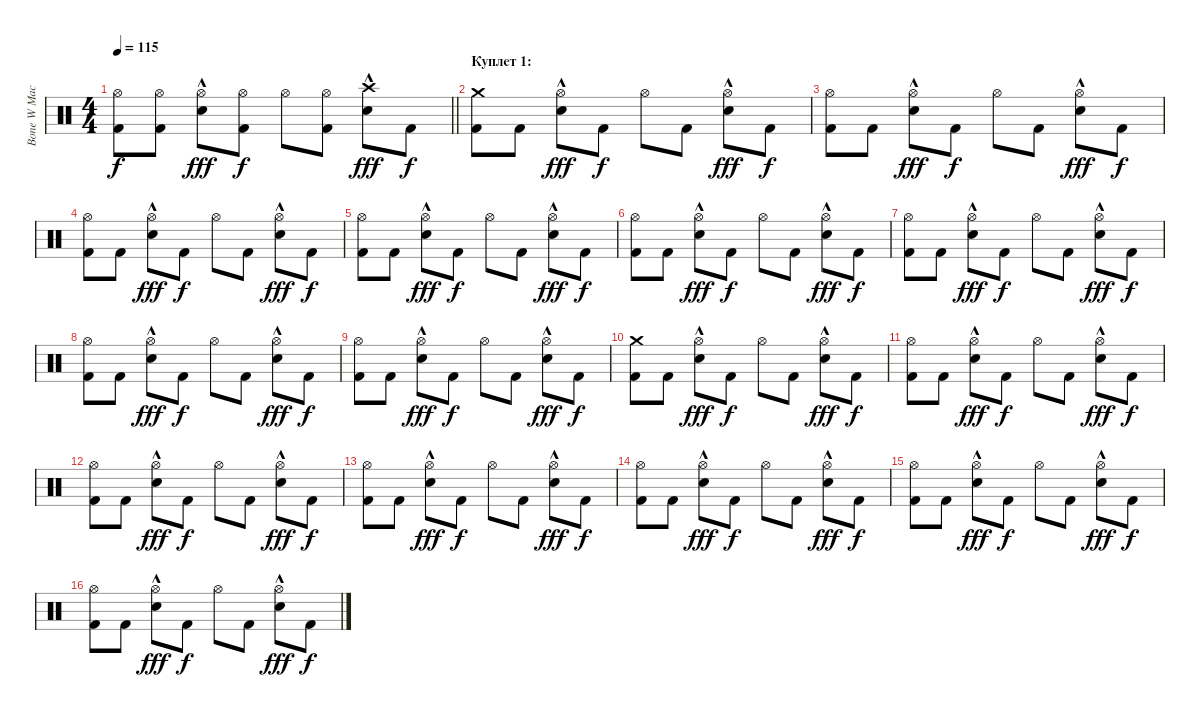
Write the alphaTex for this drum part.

\track ("Bone W Machine" "Bone W Mac") {instrument percussion}
\staff {score}
\articulation defaults
\ts (4 4)
\tempo 115
\clef neutral
\barLineRight lightlight
\ks c
("Hi-Hat (open)" "Kick (hit) 2").8{dy f} ("Hi-Hat (open)" "Kick (hit) 2").8 ("Hi-Hat (open)" "Electric Snare (hit)"{hac}).8{dy fff} ("Hi-Hat (open)" "Kick (hit) 2").8{dy f} "Hi-Hat (open)".8 ("Hi-Hat (open)" "Kick (hit) 2").8 ("Crash high (hit)" "Electric Snare (hit)"{hac}).8{dy fff} "Kick (hit) 2".8{dy f} |
\section ("" "Куплет 1:")
("Crash medium (hit)" "Kick (hit) 2").8 "Kick (hit) 2".8 ("Hi-Hat (open)" "Electric Snare (hit)"{hac}).8{dy fff} "Kick (hit) 2".8{dy f} "Hi-Hat (open)".8 "Kick (hit) 2".8 ("Hi-Hat (open)" "Electric Snare (hit)"{hac}).8{dy fff} "Kick (hit) 2".8{dy f} |
("Hi-Hat (open)" "Kick (hit) 2").8 "Kick (hit) 2".8 ("Hi-Hat (open)" "Electric Snare (hit)"{hac}).8{dy fff} "Kick (hit) 2".8{dy f} "Hi-Hat (open)".8 "Kick (hit) 2".8 ("Hi-Hat (open)" "Electric Snare (hit)"{hac}).8{dy fff} "Kick (hit) 2".8{dy f} |
("Hi-Hat (open)" "Kick (hit) 2").8 "Kick (hit) 2".8 ("Hi-Hat (open)" "Electric Snare (hit)"{hac}).8{dy fff} "Kick (hit) 2".8{dy f} "Hi-Hat (open)".8 "Kick (hit) 2".8 ("Hi-Hat (open)" "Electric Snare (hit)"{hac}).8{dy fff} "Kick (hit) 2".8{dy f} |
("Hi-Hat (open)" "Kick (hit) 2").8 "Kick (hit) 2".8 ("Hi-Hat (open)" "Electric Snare (hit)"{hac}).8{dy fff} "Kick (hit) 2".8{dy f} "Hi-Hat (open)".8 "Kick (hit) 2".8 ("Hi-Hat (open)" "Electric Snare (hit)"{hac}).8{dy fff} "Kick (hit) 2".8{dy f} |
("Hi-Hat (open)" "Kick (hit) 2").8 "Kick (hit) 2".8 ("Hi-Hat (open)" "Electric Snare (hit)"{hac}).8{dy fff} "Kick (hit) 2".8{dy f} "Hi-Hat (open)".8 "Kick (hit) 2".8 ("Hi-Hat (open)" "Electric Snare (hit)"{hac}).8{dy fff} "Kick (hit) 2".8{dy f} |
("Hi-Hat (open)" "Kick (hit) 2").8 "Kick (hit) 2".8 ("Hi-Hat (open)" "Electric Snare (hit)"{hac}).8{dy fff} "Kick (hit) 2".8{dy f} "Hi-Hat (open)".8 "Kick (hit) 2".8 ("Hi-Hat (open)" "Electric Snare (hit)"{hac}).8{dy fff} "Kick (hit) 2".8{dy f} |
("Hi-Hat (open)" "Kick (hit) 2").8 "Kick (hit) 2".8 ("Hi-Hat (open)" "Electric Snare (hit)"{hac}).8{dy fff} "Kick (hit) 2".8{dy f} "Hi-Hat (open)".8 "Kick (hit) 2".8 ("Hi-Hat (open)" "Electric Snare (hit)"{hac}).8{dy fff} "Kick (hit) 2".8{dy f} |
("Hi-Hat (open)" "Kick (hit) 2").8 "Kick (hit) 2".8 ("Hi-Hat (open)" "Electric Snare (hit)"{hac}).8{dy fff} "Kick (hit) 2".8{dy f} "Hi-Hat (open)".8 "Kick (hit) 2".8 ("Hi-Hat (open)" "Electric Snare (hit)"{hac}).8{dy fff} "Kick (hit) 2".8{dy f} |
("Crash medium (hit)" "Kick (hit) 2").8 "Kick (hit) 2".8 ("Hi-Hat (open)" "Electric Snare (hit)"{hac}).8{dy fff} "Kick (hit) 2".8{dy f} "Hi-Hat (open)".8 "Kick (hit) 2".8 ("Hi-Hat (open)" "Electric Snare (hit)"{hac}).8{dy fff} "Kick (hit) 2".8{dy f} |
("Hi-Hat (open)" "Kick (hit) 2").8 "Kick (hit) 2".8 ("Hi-Hat (open)" "Electric Snare (hit)"{hac}).8{dy fff} "Kick (hit) 2".8{dy f} "Hi-Hat (open)".8 "Kick (hit) 2".8 ("Hi-Hat (open)" "Electric Snare (hit)"{hac}).8{dy fff} "Kick (hit) 2".8{dy f} |
("Hi-Hat (open)" "Kick (hit) 2").8 "Kick (hit) 2".8 ("Hi-Hat (open)" "Electric Snare (hit)"{hac}).8{dy fff} "Kick (hit) 2".8{dy f} "Hi-Hat (open)".8 "Kick (hit) 2".8 ("Hi-Hat (open)" "Electric Snare (hit)"{hac}).8{dy fff} "Kick (hit) 2".8{dy f} |
("Hi-Hat (open)" "Kick (hit) 2").8 "Kick (hit) 2".8 ("Hi-Hat (open)" "Electric Snare (hit)"{hac}).8{dy fff} "Kick (hit) 2".8{dy f} "Hi-Hat (open)".8 "Kick (hit) 2".8 ("Hi-Hat (open)" "Electric Snare (hit)"{hac}).8{dy fff} "Kick (hit) 2".8{dy f} |
("Hi-Hat (open)" "Kick (hit) 2").8 "Kick (hit) 2".8 ("Hi-Hat (open)" "Electric Snare (hit)"{hac}).8{dy fff} "Kick (hit) 2".8{dy f} "Hi-Hat (open)".8 "Kick (hit) 2".8 ("Hi-Hat (open)" "Electric Snare (hit)"{hac}).8{dy fff} "Kick (hit) 2".8{dy f} |
("Hi-Hat (open)" "Kick (hit) 2").8 "Kick (hit) 2".8 ("Hi-Hat (open)" "Electric Snare (hit)"{hac}).8{dy fff} "Kick (hit) 2".8{dy f} "Hi-Hat (open)".8 "Kick (hit) 2".8 ("Hi-Hat (open)" "Electric Snare (hit)"{hac}).8{dy fff} "Kick (hit) 2".8{dy f} |
("Hi-Hat (open)" "Kick (hit) 2").8 "Kick (hit) 2".8 ("Hi-Hat (open)" "Electric Snare (hit)"{hac}).8{dy fff} "Kick (hit) 2".8{dy f} "Hi-Hat (open)".8 "Kick (hit) 2".8 ("Hi-Hat (open)" "Electric Snare (hit)"{hac}).8{dy fff} "Kick (hit) 2".8{dy f}
